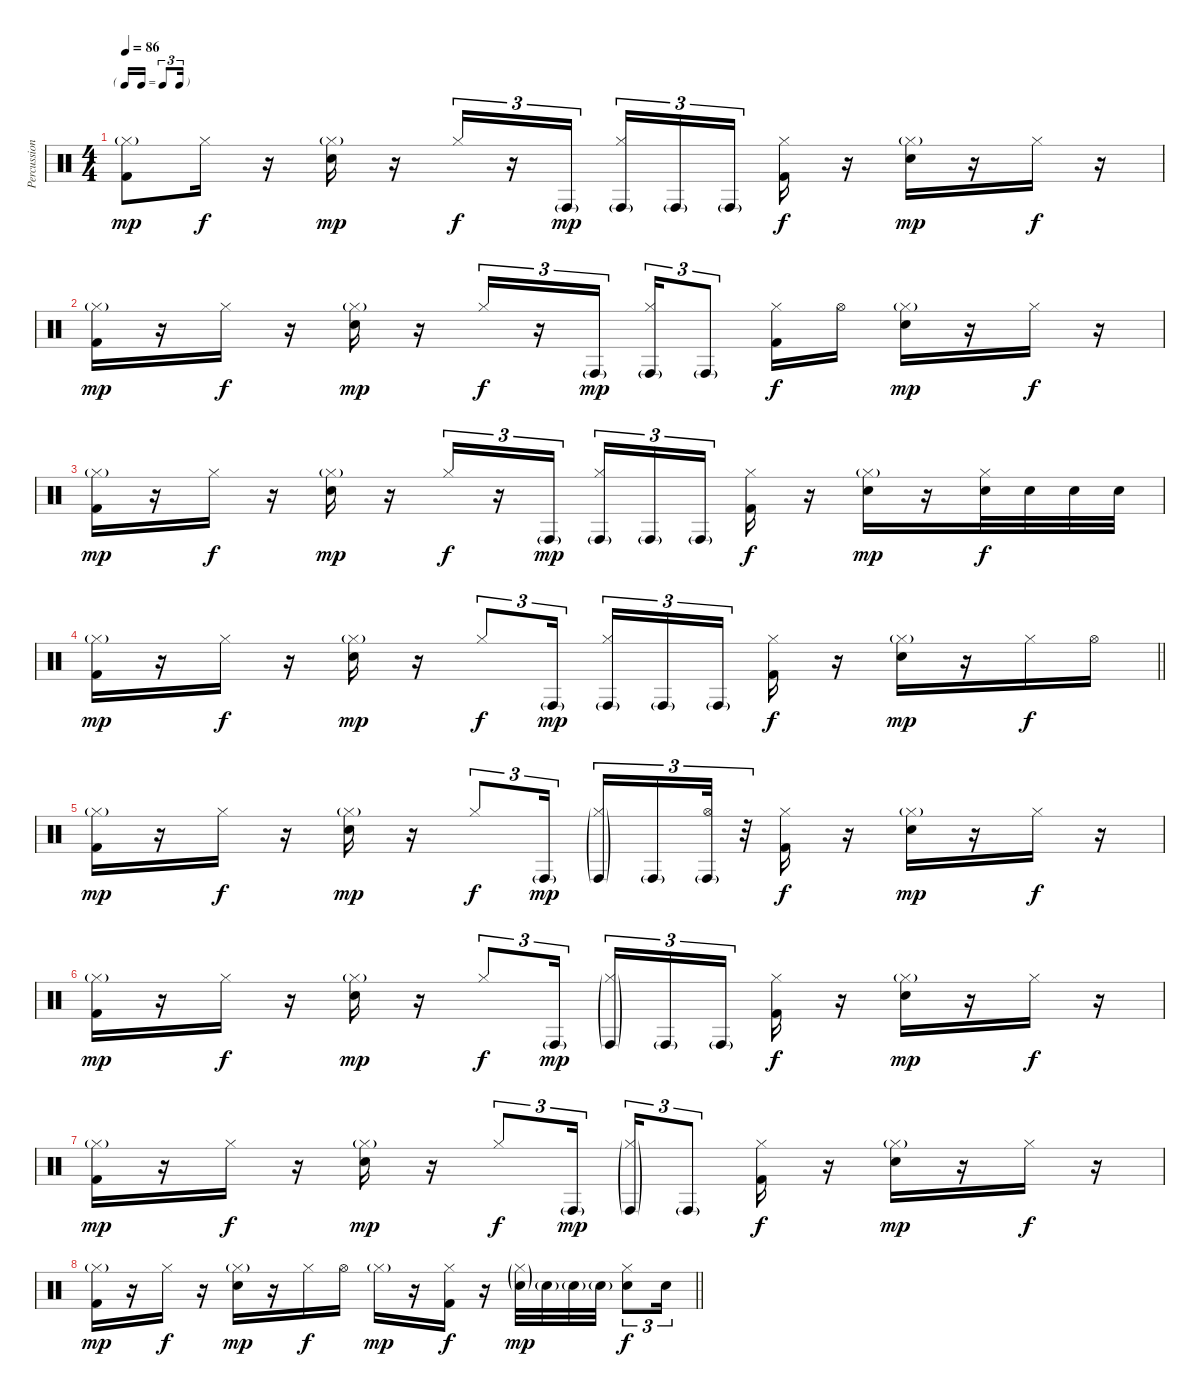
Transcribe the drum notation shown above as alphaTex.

\track ("Percussion" "Percussion") {instrument percussion}
\staff {score}
\articulation defaults
\ts (4 4)
\tf triplet16th
\tempo 86
\clef neutral
\ks c
("Hi-Hat (closed)"{g} "Kick (hit) 2").8{dy mp} "Hi-Hat (closed)".16{dy f} r.16 ("Hi-Hat (closed)"{g} "Electric Snare (hit)").16{dy mp} r.16 "Hi-Hat (closed)".16{tu (3 2) dy f} r.16{tu (3 2)} "Conga high (hit)"{g}.16{tu (3 2) dy mp} ("Conga high (hit)"{g} "Hi-Hat (closed)").16{tu (3 2)} "Conga high (hit)"{g}.16{tu (3 2)} "Conga high (hit)"{g}.16{tu (3 2) beam splitsecondary} ("Hi-Hat (closed)" "Kick (hit) 2").16{dy f} r.16 ("Hi-Hat (closed)"{g} "Electric Snare (hit)").16{dy mp} r.16 "Hi-Hat (closed)".16{dy f} r.16 |
("Hi-Hat (closed)"{g} "Kick (hit) 2").16{dy mp} r.16 "Hi-Hat (closed)".16{dy f} r.16 ("Hi-Hat (closed)"{g} "Electric Snare (hit)").16{dy mp} r.16 "Hi-Hat (closed)".16{tu (3 2) dy f} r.16{tu (3 2)} "Conga high (hit)"{g}.16{tu (3 2) dy mp} ("Conga high (hit)"{g} "Hi-Hat (closed)").16{tu (3 2)} "Conga high (hit)"{g}.8{tu (3 2)} ("Hi-Hat (closed)" "Kick (hit) 2").16{dy f} "Hi-Hat (open)".16 ("Hi-Hat (closed)"{g} "Electric Snare (hit)").16{dy mp} r.16 "Hi-Hat (closed)".16{dy f} r.16 |
("Hi-Hat (closed)"{g} "Kick (hit) 2").16{dy mp} r.16 "Hi-Hat (closed)".16{dy f} r.16 ("Hi-Hat (closed)"{g} "Electric Snare (hit)").16{dy mp} r.16 "Hi-Hat (closed)".16{tu (3 2) dy f} r.16{tu (3 2)} "Conga high (hit)"{g}.16{tu (3 2) dy mp} ("Conga high (hit)"{g} "Hi-Hat (closed)").16{tu (3 2)} "Conga high (hit)"{g}.16{tu (3 2)} "Conga high (hit)"{g}.16{tu (3 2) beam splitsecondary} ("Hi-Hat (closed)" "Kick (hit) 2").16{dy f} r.16 ("Hi-Hat (closed)"{g} "Electric Snare (hit)").16{dy mp} r.16 ("Hi-Hat (closed)" "Electric Snare (hit)").32{dy f} "Electric Snare (hit)".32 "Electric Snare (hit)".32 "Electric Snare (hit)".32 |
\barLineRight lightlight
("Hi-Hat (closed)"{g} "Kick (hit) 2").16{dy mp} r.16 "Hi-Hat (closed)".16{dy f} r.16 ("Hi-Hat (closed)"{g} "Electric Snare (hit)").16{dy mp} r.16 "Hi-Hat (closed)".8{tu (3 2) dy f} "Conga high (hit)"{g}.16{tu (3 2) dy mp} ("Conga high (hit)"{g} "Hi-Hat (closed)").16{tu (3 2)} "Conga high (hit)"{g}.16{tu (3 2)} "Conga high (hit)"{g}.16{tu (3 2) beam splitsecondary} ("Hi-Hat (closed)" "Kick (hit) 2").16{dy f} r.16 ("Hi-Hat (closed)"{g} "Electric Snare (hit)").16{dy mp} r.16 "Hi-Hat (closed)".16{dy f} "Hi-Hat (open)".16 |
("Hi-Hat (closed)"{g} "Kick (hit) 2").16{dy mp} r.16 "Hi-Hat (closed)".16{dy f} r.16 ("Hi-Hat (closed)"{g} "Electric Snare (hit)").16{dy mp} r.16 "Hi-Hat (closed)".8{tu (3 2) dy f} "Conga high (hit)"{g}.16{tu (3 2) dy mp} ("Conga high (hit)"{g} "Hi-Hat (closed)"{g}).16{tu (3 2)} "Conga high (hit)"{g}.16{tu (3 2)} ("Conga high (hit)"{g} "Hi-Hat (open)").32{tu (3 2)} r.32{tu (3 2)} ("Hi-Hat (closed)" "Kick (hit) 2").16{dy f} r.16 ("Hi-Hat (closed)"{g} "Electric Snare (hit)").16{dy mp} r.16 "Hi-Hat (closed)".16{dy f} r.16 |
("Hi-Hat (closed)"{g} "Kick (hit) 2").16{dy mp} r.16 "Hi-Hat (closed)".16{dy f} r.16 ("Hi-Hat (closed)"{g} "Electric Snare (hit)").16{dy mp} r.16 "Hi-Hat (closed)".8{tu (3 2) dy f} "Conga high (hit)"{g}.16{tu (3 2) dy mp} ("Conga high (hit)"{g} "Hi-Hat (closed)"{g}).16{tu (3 2)} "Conga high (hit)"{g}.16{tu (3 2)} "Conga high (hit)"{g}.16{tu (3 2) beam splitsecondary} ("Hi-Hat (closed)" "Kick (hit) 2").16{dy f} r.16 ("Hi-Hat (closed)"{g} "Electric Snare (hit)").16{dy mp} r.16 "Hi-Hat (closed)".16{dy f} r.16 |
("Hi-Hat (closed)"{g} "Kick (hit) 2").16{dy mp} r.16 "Hi-Hat (closed)".16{dy f} r.16 ("Hi-Hat (closed)"{g} "Electric Snare (hit)").16{dy mp} r.16 "Hi-Hat (closed)".8{tu (3 2) dy f} "Conga high (hit)"{g}.16{tu (3 2) dy mp} ("Conga high (hit)"{g} "Hi-Hat (closed)"{g}).16{tu (3 2)} "Conga high (hit)"{g}.8{tu (3 2)} ("Hi-Hat (closed)" "Kick (hit) 2").16{dy f} r.16 ("Hi-Hat (closed)"{g} "Electric Snare (hit)").16{dy mp} r.16 "Hi-Hat (closed)".16{dy f} r.16 |
\barLineRight lightlight
("Hi-Hat (closed)"{g} "Kick (hit) 2").16{dy mp} r.16 "Hi-Hat (closed)".16{dy f} r.16 ("Hi-Hat (closed)"{g} "Electric Snare (hit)").16{dy mp} r.16 "Hi-Hat (closed)".16{dy f} "Hi-Hat (open)".16 "Hi-Hat (closed)"{g}.16{dy mp} r.16 ("Hi-Hat (closed)" "Kick (hit) 2").16{dy f} r.16 ("Hi-Hat (closed)"{g} "Electric Snare (hit)"{g}).32{dy mp} "Electric Snare (hit)"{g}.32 "Electric Snare (hit)"{g}.32 "Electric Snare (hit)"{g}.32 ("Hi-Hat (closed)" "Electric Snare (hit)").8{tu (3 2) dy f} "Electric Snare (hit)".16{tu (3 2)}
